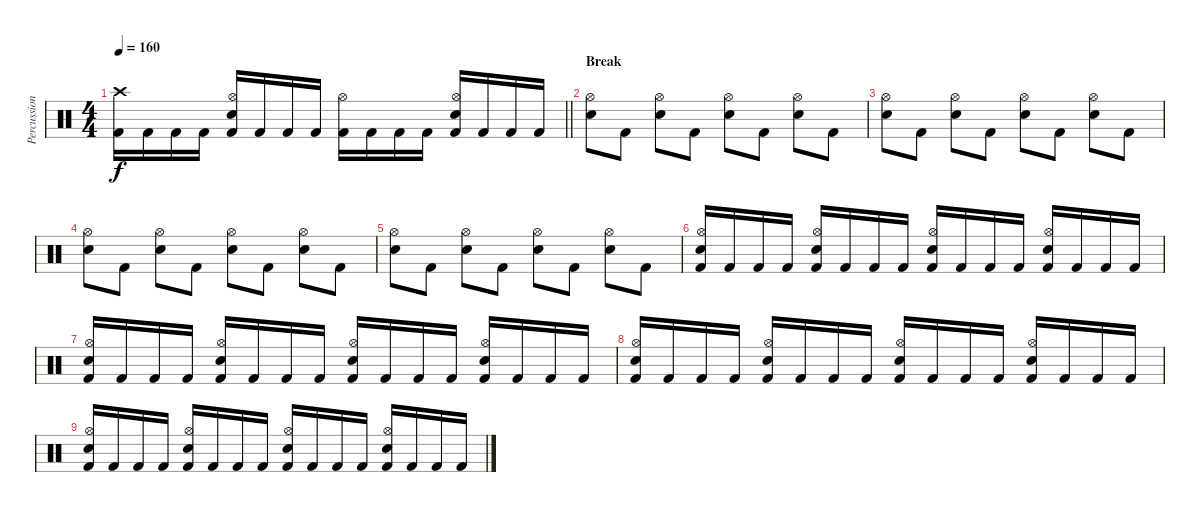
\track ("Percussion" "Percussion") {instrument percussion}
\staff {score}
\articulation defaults
\ts (4 4)
\tempo 160
\clef neutral
\barLineRight lightlight
\ks c
("Crash high (hit)" "Kick (hit) 2").16{dy f} "Kick (hit) 2".16 "Kick (hit) 2".16 "Kick (hit) 2".16 ("Hi-Hat (open)" "Electric Snare (hit)" "Kick (hit) 2").16 "Kick (hit) 2".16 "Kick (hit) 2".16 "Kick (hit) 2".16 ("Hi-Hat (open)" "Kick (hit) 2").16 "Kick (hit) 2".16 "Kick (hit) 2".16 "Kick (hit) 2".16 ("Hi-Hat (open)" "Electric Snare (hit)" "Kick (hit) 2").16 "Kick (hit) 2".16 "Kick (hit) 2".16 "Kick (hit) 2".16 |
\section ("" "Break")
("Hi-Hat (open)" "Electric Snare (hit)").8 "Kick (hit) 2".8 ("Hi-Hat (open)" "Electric Snare (hit)").8 "Kick (hit) 2".8 ("Hi-Hat (open)" "Electric Snare (hit)").8 "Kick (hit) 2".8 ("Hi-Hat (open)" "Electric Snare (hit)").8 "Kick (hit) 2".8 |
("Hi-Hat (open)" "Electric Snare (hit)").8 "Kick (hit) 2".8 ("Hi-Hat (open)" "Electric Snare (hit)").8 "Kick (hit) 2".8 ("Hi-Hat (open)" "Electric Snare (hit)").8 "Kick (hit) 2".8 ("Hi-Hat (open)" "Electric Snare (hit)").8 "Kick (hit) 2".8 |
("Hi-Hat (open)" "Electric Snare (hit)").8 "Kick (hit) 2".8 ("Hi-Hat (open)" "Electric Snare (hit)").8 "Kick (hit) 2".8 ("Hi-Hat (open)" "Electric Snare (hit)").8 "Kick (hit) 2".8 ("Hi-Hat (open)" "Electric Snare (hit)").8 "Kick (hit) 2".8 |
("Hi-Hat (open)" "Electric Snare (hit)").8 "Kick (hit) 2".8 ("Hi-Hat (open)" "Electric Snare (hit)").8 "Kick (hit) 2".8 ("Hi-Hat (open)" "Electric Snare (hit)").8 "Kick (hit) 2".8 ("Hi-Hat (open)" "Electric Snare (hit)").8 "Kick (hit) 2".8 |
("Hi-Hat (open)" "Electric Snare (hit)" "Kick (hit) 2").16 "Kick (hit) 2".16 "Kick (hit) 2".16 "Kick (hit) 2".16 ("Hi-Hat (open)" "Electric Snare (hit)" "Kick (hit) 2").16 "Kick (hit) 2".16 "Kick (hit) 2".16 "Kick (hit) 2".16 ("Hi-Hat (open)" "Electric Snare (hit)" "Kick (hit) 2").16 "Kick (hit) 2".16 "Kick (hit) 2".16 "Kick (hit) 2".16 ("Hi-Hat (open)" "Electric Snare (hit)" "Kick (hit) 2").16 "Kick (hit) 2".16 "Kick (hit) 2".16 "Kick (hit) 2".16 |
("Hi-Hat (open)" "Electric Snare (hit)" "Kick (hit) 2").16 "Kick (hit) 2".16 "Kick (hit) 2".16 "Kick (hit) 2".16 ("Hi-Hat (open)" "Electric Snare (hit)" "Kick (hit) 2").16 "Kick (hit) 2".16 "Kick (hit) 2".16 "Kick (hit) 2".16 ("Hi-Hat (open)" "Electric Snare (hit)" "Kick (hit) 2").16 "Kick (hit) 2".16 "Kick (hit) 2".16 "Kick (hit) 2".16 ("Hi-Hat (open)" "Electric Snare (hit)" "Kick (hit) 2").16 "Kick (hit) 2".16 "Kick (hit) 2".16 "Kick (hit) 2".16 |
("Hi-Hat (open)" "Electric Snare (hit)" "Kick (hit) 2").16 "Kick (hit) 2".16 "Kick (hit) 2".16 "Kick (hit) 2".16 ("Hi-Hat (open)" "Electric Snare (hit)" "Kick (hit) 2").16 "Kick (hit) 2".16 "Kick (hit) 2".16 "Kick (hit) 2".16 ("Hi-Hat (open)" "Electric Snare (hit)" "Kick (hit) 2").16 "Kick (hit) 2".16 "Kick (hit) 2".16 "Kick (hit) 2".16 ("Hi-Hat (open)" "Electric Snare (hit)" "Kick (hit) 2").16 "Kick (hit) 2".16 "Kick (hit) 2".16 "Kick (hit) 2".16 |
("Hi-Hat (open)" "Electric Snare (hit)" "Kick (hit) 2").16 "Kick (hit) 2".16 "Kick (hit) 2".16 "Kick (hit) 2".16 ("Hi-Hat (open)" "Electric Snare (hit)" "Kick (hit) 2").16 "Kick (hit) 2".16 "Kick (hit) 2".16 "Kick (hit) 2".16 ("Hi-Hat (open)" "Electric Snare (hit)" "Kick (hit) 2").16 "Kick (hit) 2".16 "Kick (hit) 2".16 "Kick (hit) 2".16 ("Hi-Hat (open)" "Electric Snare (hit)" "Kick (hit) 2").16 "Kick (hit) 2".16 "Kick (hit) 2".16 "Kick (hit) 2".16
